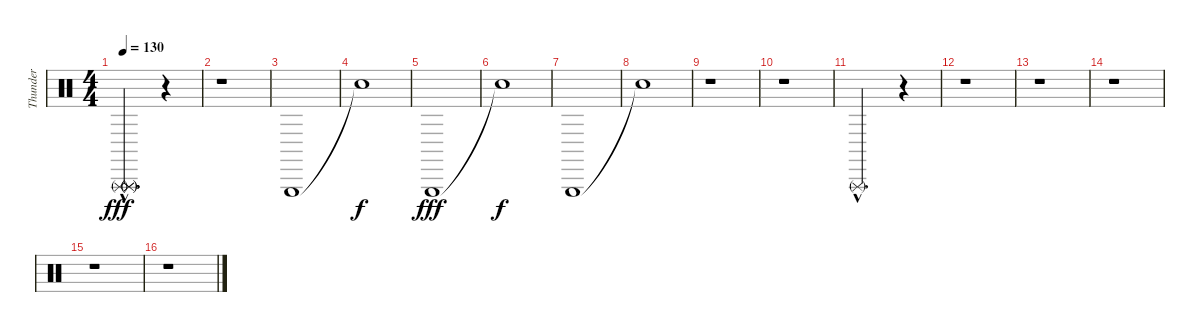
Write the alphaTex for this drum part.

\track ("Thunder" "Thunder") {instrument percussion}
\staff {score}
\articulation defaults
\ts (4 4)
\tempo 130
\clef neutral
\ks c
("Triangle (rnute)"{hac} "Triangle (rnute)"{hac} "Triangle (rnute)"{hac}).2{d dy fff} r.4 |
r.1 |
"Triangle (hit)".1 |
"Snare (hit)"{t}.1{dy f} |
"Triangle (hit)".1{dy fff} |
"Snare (hit)"{t}.1{dy f} |
"Triangle (hit)".1 |
"Snare (hit)"{t}.1 |
r.1 |
r.1 |
"Triangle (rnute)"{hac}.2{d} r.4 |
r.1 |
r.1 |
r.1 |
r.1 |
r.1
